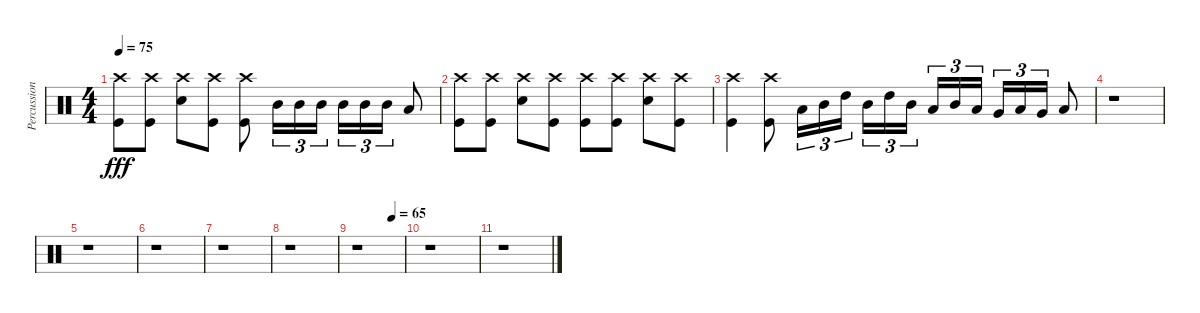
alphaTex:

\track ("Percussion" "Percussion") {instrument percussion}
\staff {score}
\articulation defaults
\ts (4 4)
\tempo 75
\clef neutral
\ks c
("Crash high (hit)" "Kick (hit)").8{dy fff} ("Crash high (hit)" "Kick (hit)").8 ("Crash high (hit)" "Electric Snare (hit)").8 ("Crash high (hit)" "Kick (hit)").8 ("Crash high (hit)" "Kick (hit)").8 "Mid Tom (hit)".16{tu (3 2)} "Mid Tom (hit)".16{tu (3 2)} "Mid Tom (hit)".16{tu (3 2)} "Mid Tom (hit)".16{tu (3 2)} "Mid Tom (hit)".16{tu (3 2)} "Mid Tom (hit)".16{tu (3 2)} "Low Tom (hit)".8 |
("Crash high (hit)" "Kick (hit)").8 ("Crash high (hit)" "Kick (hit)").8 ("Crash high (hit)" "Electric Snare (hit)").8 ("Crash high (hit)" "Kick (hit)").8 ("Crash high (hit)" "Kick (hit)").8 ("Crash high (hit)" "Kick (hit)").8 ("Crash high (hit)" "Electric Snare (hit)").8 ("Crash high (hit)" "Kick (hit)").8 |
("Crash high (hit)" "Kick (hit)").4 ("Crash high (hit)" "Kick (hit)").8 "Low Tom (hit)".16{tu (3 2)} "Mid Tom (hit)".16{tu (3 2)} "High Tom (hit)".16{tu (3 2)} "Mid Tom (hit)".16{tu (3 2)} "High Tom (hit)".16{tu (3 2)} "Mid Tom (hit)".16{tu (3 2)} "Low Tom (hit)".16{tu (3 2)} "Mid Tom (hit)".16{tu (3 2)} "Low Tom (hit)".16{tu (3 2)} "Very Low Tom (hit)".16{tu (3 2)} "Low Tom (hit)".16{tu (3 2)} "Very Low Tom (hit)".16{tu (3 2)} "Low Tom (hit)".8 |
r.1 |
r.1 |
r.1 |
r.1 |
r.1 |
\tempo (65 0.75)
r.1 |
r.1 |
r.1
